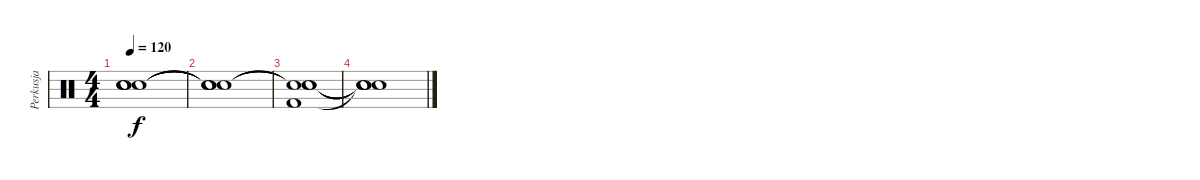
\track ("Perkusja" "Perkusja") {instrument percussion}
\staff {score}
\articulation defaults
\ts (4 4)
\tempo 120
\clef neutral
\ks c
("Snare (hit)"{t} "Snare (hit)"{t} "Snare (hit)"{t} "Snare (hit)"{t}).1{dy f volume 11} |
("Snare (hit)"{t} "Snare (hit)"{t} "Snare (hit)"{t} "Snare (hit)"{t}).1{volume 8} |
("Snare (hit) 2"{t} "Kick (hit) 2" "Snare (hit)"{t} "Snare (hit)"{t}).1{volume 5} |
("Snare (hit)"{t} "Snare (hit)"{t} "Snare (hit)"{t} "Snare (hit)"{t}).1{volume 2}
